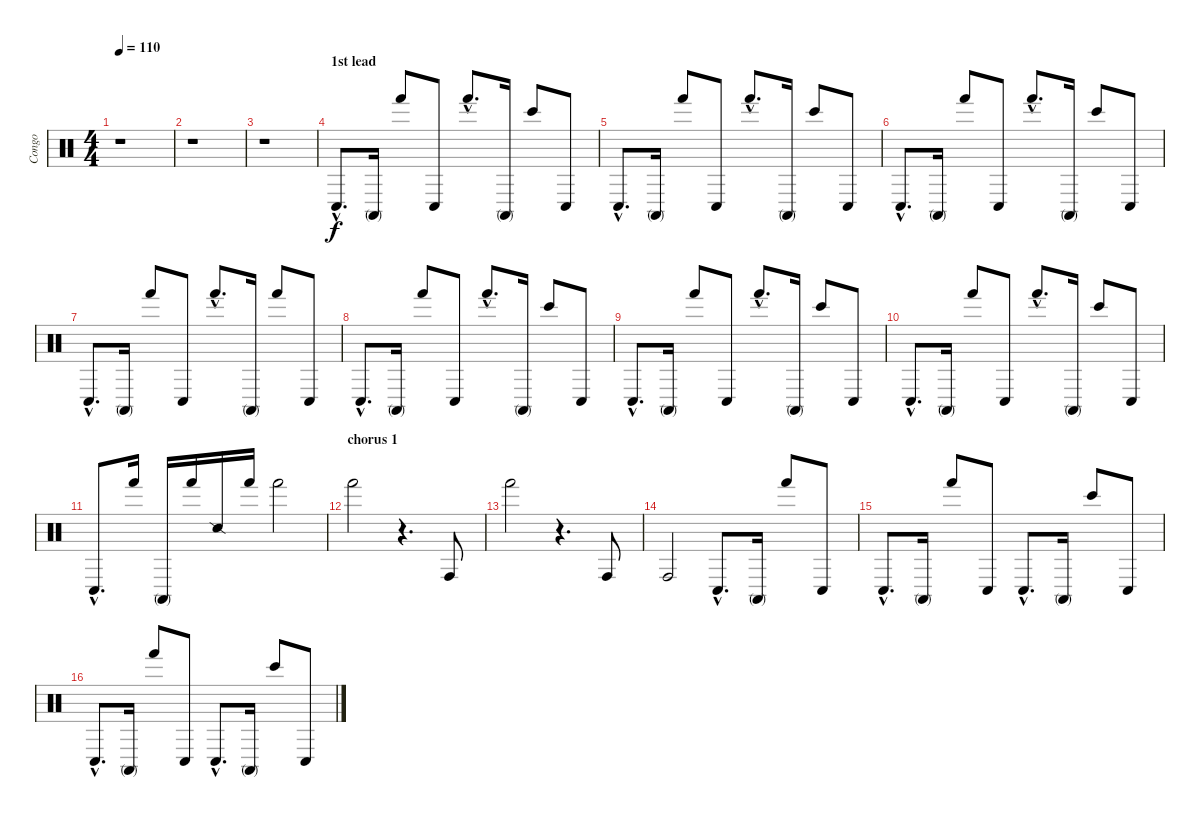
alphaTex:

\track ("Congo" "Congo") {instrument percussion}
\staff {score}
\articulation defaults
\ts (4 4)
\tempo 110
\clef neutral
\ks c
r.1{dy f} |
r.1 |
r.1 |
\section ("" "1st lead")
"Conga low (hit)"{hac}.8{d} "Conga high (mute)".16 "Hand (hit)".8 "Conga low (hit)".8 "Hand (hit)"{hac}.8{d} "Conga high (mute)".16 "Bongo High (hit)".8 "Conga low (hit)".8 |
"Conga low (hit)"{hac}.8{d} "Conga high (mute)".16 "Hand (hit)".8 "Conga low (hit)".8 "Hand (hit)"{hac}.8{d} "Conga high (mute)".16 "Bongo High (hit)".8 "Conga low (hit)".8 |
"Conga low (hit)"{hac}.8{d} "Conga high (mute)".16 "Hand (hit)".8 "Conga low (hit)".8 "Hand (hit)"{hac}.8{d} "Conga high (mute)".16 "Bongo High (hit)".8 "Conga low (hit)".8 |
"Conga low (hit)"{hac}.8{d} "Conga high (mute)".16 "Hand (hit)".8 "Conga low (hit)".8 "Hand (hit)"{hac}.8{d} "Conga high (mute)".16 "Hand (hit)".8 "Conga low (hit)".8 |
"Conga low (hit)"{hac}.8{d} "Conga high (mute)".16 "Hand (hit)".8 "Conga low (hit)".8 "Hand (hit)"{hac}.8{d} "Conga high (mute)".16 "Bongo High (hit)".8 "Conga low (hit)".8 |
"Conga low (hit)"{hac}.8{d} "Conga high (mute)".16 "Hand (hit)".8 "Conga low (hit)".8 "Hand (hit)"{hac}.8{d} "Conga high (mute)".16 "Bongo High (hit)".8 "Conga low (hit)".8 |
"Conga low (hit)"{hac}.8{d} "Conga high (mute)".16 "Hand (hit)".8 "Conga low (hit)".8 "Hand (hit)"{hac}.8{d} "Conga high (mute)".16 "Bongo High (hit)".8 "Conga low (hit)".8 |
"Conga low (hit)"{hac}.8{d} "Hand (hit)".16 "Conga high (mute)".16 "Hand (hit)".16 "Snare (side stick) 2".16 "Hand (hit)".16 "Hand (hit)".2 |
\section ("" "chorus 1")
"Hand (hit)".2 r.4{d} "Conga high (hit)".8 |
"Hand (hit)".2 r.4{d} "Conga high (hit)".8 |
"Conga high (hit)".2 "Conga low (hit)"{hac}.8{d} "Conga high (mute)".16 "Hand (hit)".8 "Conga low (hit)".8 |
"Conga low (hit)"{hac}.8{d} "Conga high (mute)".16 "Hand (hit)".8 "Conga low (hit)".8 "Conga low (hit)"{hac}.8{d} "Conga high (mute)".16 "Bongo High (hit)".8 "Conga low (hit)".8 |
"Conga low (hit)"{hac}.8{d} "Conga high (mute)".16 "Hand (hit)".8 "Conga low (hit)".8 "Conga low (hit)"{hac}.8{d} "Conga high (mute)".16 "Bongo High (hit)".8 "Conga low (hit)".8
